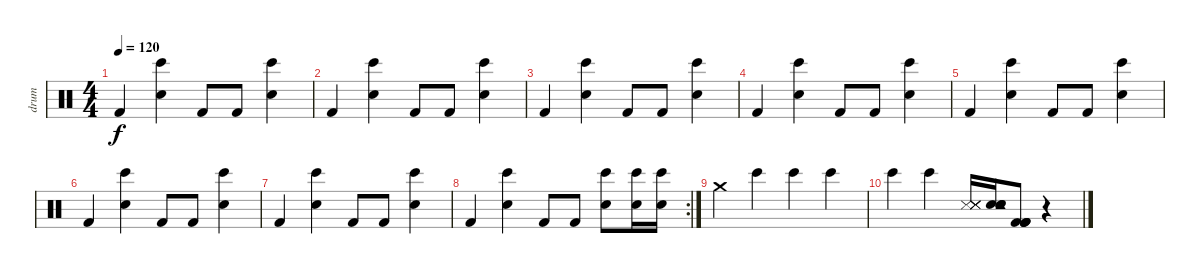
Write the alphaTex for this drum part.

\track ("drum " "drum ") {instrument percussion}
\staff {score}
\articulation defaults
\ts (4 4)
\tempo 120
\clef neutral
\ks c "Kick (hit) 2".4{dy f}
("Electric Snare (hit)" "Bongo High (hit)").4 "Kick (hit) 2".8 "Kick (hit) 2".8 ("Electric Snare (hit)" "Bongo High (hit)").4 |
"Kick (hit) 2".4 ("Electric Snare (hit)" "Bongo High (hit)").4 "Kick (hit) 2".8 "Kick (hit) 2".8 ("Electric Snare (hit)" "Bongo High (hit)").4 |
"Kick (hit) 2".4 ("Electric Snare (hit)" "Bongo High (hit)").4 "Kick (hit) 2".8 "Kick (hit) 2".8 ("Electric Snare (hit)" "Bongo High (hit)").4 |
"Kick (hit) 2".4 ("Electric Snare (hit)" "Bongo High (hit)").4 "Kick (hit) 2".8 "Kick (hit) 2".8 ("Electric Snare (hit)" "Bongo High (hit)").4 |
"Kick (hit) 2".4 ("Electric Snare (hit)" "Bongo High (hit)").4 "Kick (hit) 2".8 "Kick (hit) 2".8 ("Electric Snare (hit)" "Bongo High (hit)").4 |
"Kick (hit) 2".4 ("Electric Snare (hit)" "Bongo High (hit)").4 "Kick (hit) 2".8 "Kick (hit) 2".8 ("Electric Snare (hit)" "Bongo High (hit)").4 |
"Kick (hit) 2".4 ("Electric Snare (hit)" "Bongo High (hit)").4 "Kick (hit) 2".8 "Kick (hit) 2".8 ("Electric Snare (hit)" "Bongo High (hit)").4 |
\rc 2 "Kick (hit) 2".4
("Electric Snare (hit)" "Bongo High (hit)").4 "Kick (hit) 2".8 "Kick (hit) 2".8 ("Electric Snare (hit)" "Bongo High (hit)").8 ("Electric Snare (hit)" "Bongo High (hit)").16 ("Electric Snare (hit)" "Bongo High (hit)").16 |
"Crash medium (hit)".4{volume 13} "Bongo High (hit)".4{volume 11} "Bongo High (hit)".4 "Bongo High (hit)".4{volume 9} |
"Bongo High (hit)".4 "Bongo High (hit)".4{volume 7} ("Metronome (hit)" "Metronome (hit)" "Metronome (hit)" "Metronome (hit)" "Metronome (hit)").16{volume 12} ("Snare (hit) 2" "Snare (hit) 2" "Snare (hit) 2" "Tambourine (hit)").16 ("Kick (hit) 2" "Kick (hit) 2" "Kick (hit) 2" "Kick (hit) 2").8 r.4
